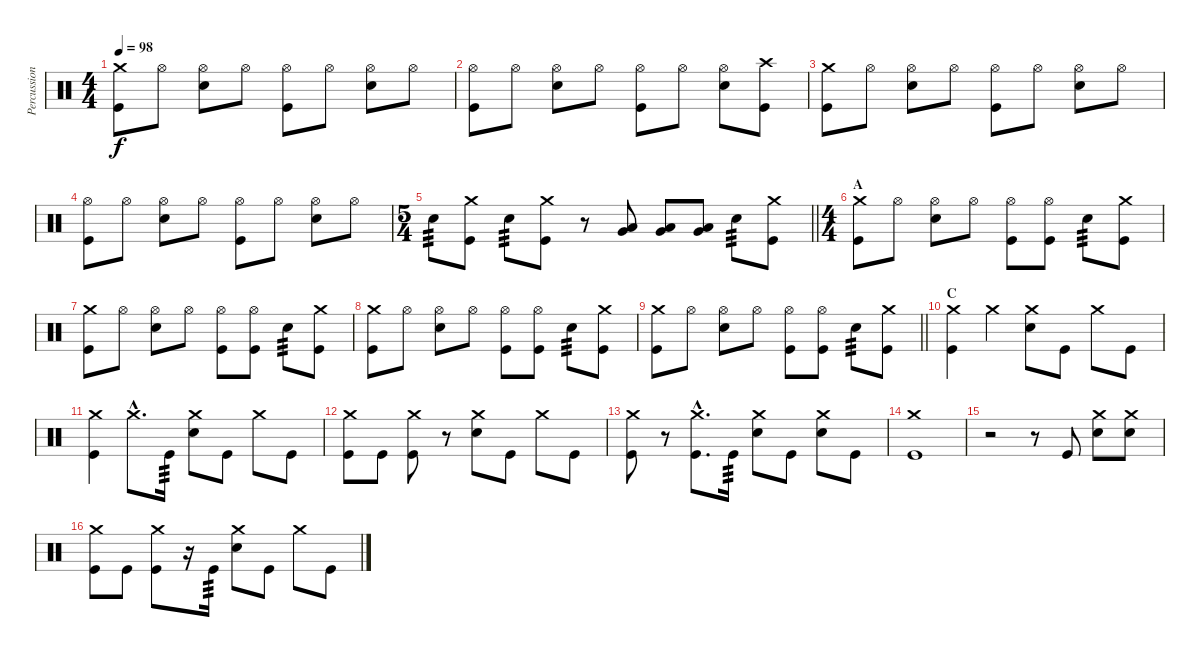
\track ("Percussion" "Percussion") {instrument percussion}
\staff {score}
\articulation defaults
\ts (4 4)
\tempo 98
\clef neutral
\ks c
("Crash medium (hit)" "Kick (hit)").8{dy f} "Hi-Hat (open)".8 ("Hi-Hat (open)" "Snare (hit) 2").8 "Hi-Hat (open)".8 ("Hi-Hat (open)" "Kick (hit)").8 "Hi-Hat (open)".8 ("Hi-Hat (open)" "Snare (hit) 2").8 "Hi-Hat (open)".8 |
("Hi-Hat (open)" "Kick (hit)").8 "Hi-Hat (open)".8 ("Hi-Hat (open)" "Snare (hit) 2").8 "Hi-Hat (open)".8 ("Hi-Hat (open)" "Kick (hit)").8 "Hi-Hat (open)".8 ("Hi-Hat (open)" "Snare (hit) 2").8 ("Crash high (hit)" "Kick (hit)").8 |
("Crash medium (hit)" "Kick (hit)").8 "Hi-Hat (open)".8 ("Hi-Hat (open)" "Snare (hit) 2").8 "Hi-Hat (open)".8 ("Hi-Hat (open)" "Kick (hit)").8 "Hi-Hat (open)".8 ("Hi-Hat (open)" "Snare (hit) 2").8 "Hi-Hat (open)".8 |
("Hi-Hat (open)" "Kick (hit)").8 "Hi-Hat (open)".8 ("Hi-Hat (open)" "Snare (hit) 2").8 "Hi-Hat (open)".8 ("Hi-Hat (open)" "Kick (hit)").8 "Hi-Hat (open)".8 ("Hi-Hat (open)" "Snare (hit) 2").8 "Hi-Hat (open)".8 |
\ts (5 4)
\barLineRight lightlight "Snare (hit) 2".8{tp 3}
("Kick (hit)" "Crash medium (hit)").8 "Snare (hit) 2".8{tp 3} ("Kick (hit)" "Crash medium (hit)").8 r.8 ("Low Floor Tom (hit)" "Very Low Tom (hit)").8 ("Low Floor Tom (hit)" "Very Low Tom (hit)").8 ("Low Floor Tom (hit)" "Very Low Tom (hit)").8 "Snare (hit) 2".8{tp 3} ("Kick (hit)" "Crash medium (hit)").8 |
\ts (4 4)
\section ("" "A")
("Kick (hit)" "Crash medium (hit)").8 "Hi-Hat (open)".8 ("Hi-Hat (open)" "Snare (hit) 2").8 "Hi-Hat (open)".8 ("Hi-Hat (open)" "Kick (hit)").8 ("Hi-Hat (open)" "Kick (hit)").8 "Snare (hit) 2".8{tp 3} ("Kick (hit)" "Crash medium (hit)").8 |
("Kick (hit)" "Crash medium (hit)").8 "Hi-Hat (open)".8 ("Hi-Hat (open)" "Snare (hit) 2").8 "Hi-Hat (open)".8 ("Hi-Hat (open)" "Kick (hit)").8 ("Hi-Hat (open)" "Kick (hit)").8 "Snare (hit) 2".8{tp 3} ("Kick (hit)" "Crash medium (hit)").8 |
("Kick (hit)" "Crash medium (hit)").8 "Hi-Hat (open)".8 ("Hi-Hat (open)" "Snare (hit) 2").8 "Hi-Hat (open)".8 ("Hi-Hat (open)" "Kick (hit)").8 ("Hi-Hat (open)" "Kick (hit)").8 "Snare (hit) 2".8{tp 3} ("Kick (hit)" "Crash medium (hit)").8 |
\barLineRight lightlight
("Kick (hit)" "Crash medium (hit)").8 "Hi-Hat (open)".8 ("Hi-Hat (open)" "Snare (hit) 2").8 "Hi-Hat (open)".8 ("Hi-Hat (open)" "Kick (hit)").8 ("Hi-Hat (open)" "Kick (hit)").8 "Snare (hit) 2".8{tp 3} ("Kick (hit)" "Crash medium (hit)").8 |
\section ("" "C")
("Crash medium (hit)" "Kick (hit)").4 "Crash medium (hit)".4 ("Crash medium (hit)" "Snare (hit) 2").8 "Kick (hit)".8 "Crash medium (hit)".8 "Kick (hit)".8 |
("Crash medium (hit)" "Kick (hit)").4 "Crash medium (hit)"{hac}.8{d} "Kick (hit)".16{tp 3} ("Crash medium (hit)" "Snare (hit) 2").8 "Kick (hit)".8 "Crash medium (hit)".8 "Kick (hit)".8 |
("Crash medium (hit)" "Kick (hit)").8 "Kick (hit)".8 ("Crash medium (hit)" "Kick (hit)").8 r.8 ("Crash medium (hit)" "Snare (hit) 2").8 "Kick (hit)".8 "Crash medium (hit)".8 "Kick (hit)".8 |
("Crash medium (hit)" "Kick (hit)").8 r.8 ("Crash medium (hit)"{hac} "Kick (hit)"{hac}).8{d} "Kick (hit)".16{tp 3} ("Crash medium (hit)" "Snare (hit) 2").8 "Kick (hit)".8 ("Crash medium (hit)" "Snare (hit) 2").8 "Kick (hit)".8 |
("Kick (hit)" "Crash medium (hit)").1 |
r.2 r.8 "Kick (hit)".8 ("Snare (hit) 2" "Crash medium (hit)").8 ("Snare (hit) 2" "Crash medium (hit)").8 |
("Crash medium (hit)" "Kick (hit)").8 "Kick (hit)".8 ("Crash medium (hit)" "Kick (hit)").8 r.16 "Kick (hit)".16{tp 3} ("Crash medium (hit)" "Snare (hit) 2").8 "Kick (hit)".8 "Crash medium (hit)".8 "Kick (hit)".8
